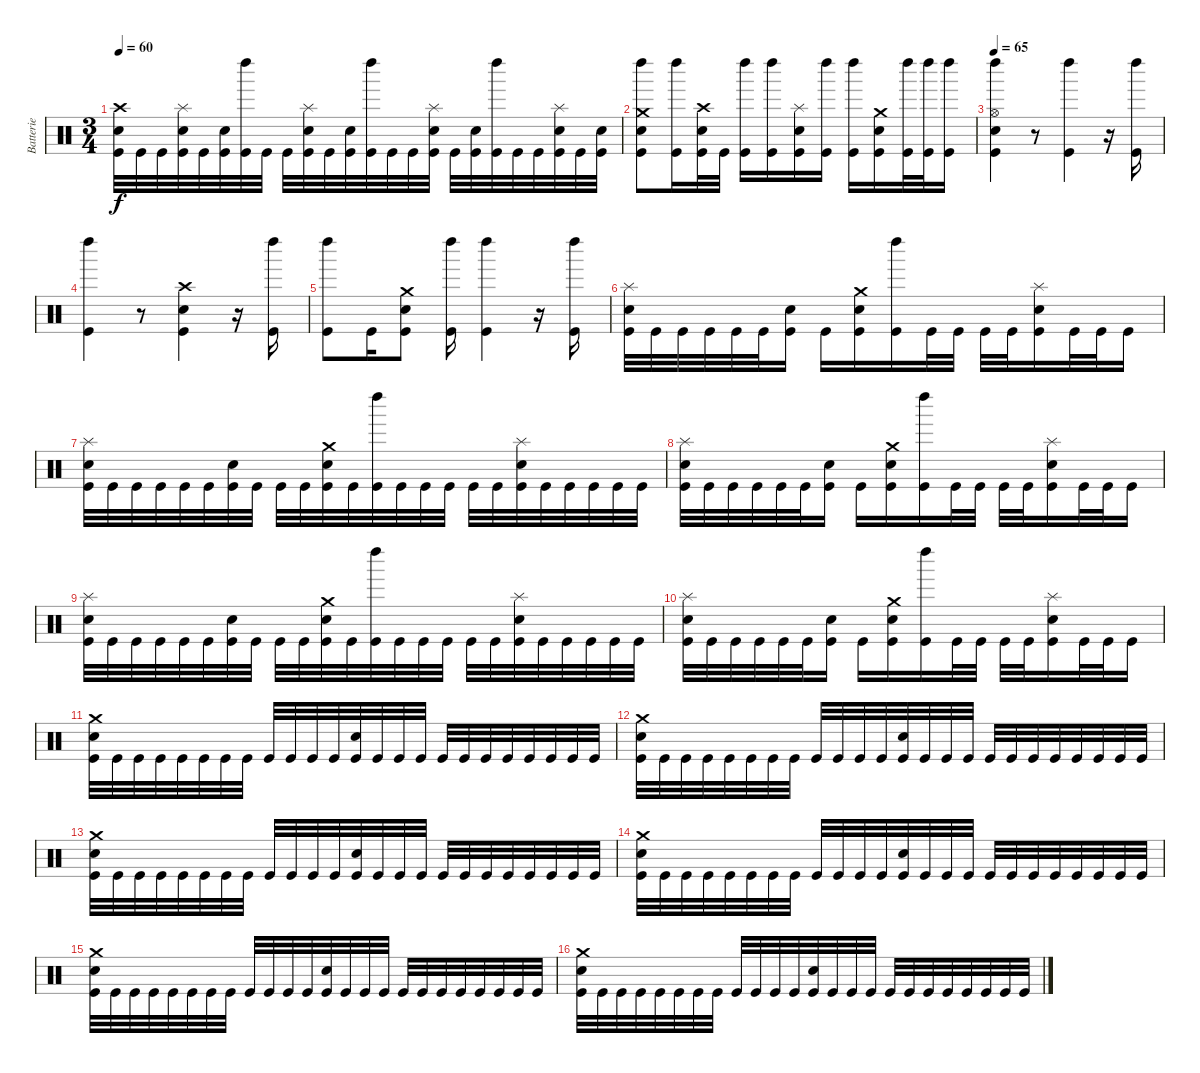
\track ("Batterie" "Batterie") {instrument percussion}
\staff {score}
\articulation defaults
\ts (3 4)
\tempo 60
\clef neutral
\ks c
("Kick (hit)" "Electric Snare (hit)" "Crash high (hit)").32{dy f} "Kick (hit)".32 "Kick (hit)".32 ("Kick (hit)" "Electric Snare (hit)" "Splash (hit)").32 "Kick (hit)".32 ("Kick (hit)" "Electric Snare (hit)").32 ("Kick (hit)" "Left Maraca (hit)").32 "Kick (hit)".32 "Kick (hit)".32 ("Kick (hit)" "Electric Snare (hit)" "Splash (hit)").32 "Kick (hit)".32 ("Kick (hit)" "Electric Snare (hit)").32 ("Kick (hit)" "Left Maraca (hit)").32 "Kick (hit)".32 "Kick (hit)".32 ("Kick (hit)" "Electric Snare (hit)" "Splash (hit)").32 "Kick (hit)".32 ("Kick (hit)" "Electric Snare (hit)").32 ("Kick (hit)" "Left Maraca (hit)").32 "Kick (hit)".32 "Kick (hit)".32 ("Kick (hit)" "Electric Snare (hit)" "Splash (hit)").32 "Kick (hit)".32 ("Kick (hit)" "Electric Snare (hit)").32 |
("Kick (hit)" "Electric Snare (hit)" "Left Maraca (hit)" "Crash medium (hit)").8 ("Kick (hit)" "Left Maraca (hit)").16 ("Kick (hit)" "Electric Snare (hit)" "Crash high (hit)").32 "Kick (hit)".32 ("Kick (hit)" "Left Maraca (hit)").16 ("Kick (hit)" "Left Maraca (hit)").16 ("Kick (hit)" "Electric Snare (hit)" "Splash (hit)").16 ("Kick (hit)" "Left Maraca (hit)").16 ("Kick (hit)" "Left Maraca (hit)").16 ("Kick (hit)" "Electric Snare (hit)" "Crash medium (hit)").16 ("Kick (hit)" "Left Maraca (hit)").32 ("Kick (hit)" "Left Maraca (hit)").32 ("Kick (hit)" "Left Maraca (hit)").16 |
\tempo 65
("Kick (hit)" "Electric Snare (hit)" "Left Maraca (hit)" "Hi-Hat (open)").4 r.8 ("Kick (hit)" "Left Maraca (hit)").4 r.16 ("Kick (hit)" "Left Maraca (hit)").16 |
("Kick (hit)" "Left Maraca (hit)").4 r.8 ("Kick (hit)" "Electric Snare (hit)" "Crash high (hit)").4 r.16 ("Kick (hit)" "Left Maraca (hit)").16 |
("Kick (hit)" "Left Maraca (hit)").8 "Kick (hit)".16 ("Kick (hit)" "Electric Snare (hit)" "Crash medium (hit)").8 ("Kick (hit)" "Left Maraca (hit)").16 ("Kick (hit)" "Left Maraca (hit)").4 r.16 ("Kick (hit)" "Left Maraca (hit)").16 |
("Kick (hit)" "Electric Snare (hit)" "Splash (hit)").32 "Kick (hit)".32 "Kick (hit)".32 "Kick (hit)".32 "Kick (hit)".32 "Kick (hit)".32 ("Kick (hit)" "Electric Snare (hit)").16 "Kick (hit)".16 ("Kick (hit)" "Electric Snare (hit)" "Crash medium (hit)").16 ("Kick (hit)" "Left Maraca (hit)").16 "Kick (hit)".32 "Kick (hit)".32 "Kick (hit)".32 "Kick (hit)".32 ("Kick (hit)" "Electric Snare (hit)" "Splash (hit)").16 "Kick (hit)".32 "Kick (hit)".32 "Kick (hit)".16 |
("Kick (hit)" "Electric Snare (hit)" "Splash (hit)").32 "Kick (hit)".32 "Kick (hit)".32 "Kick (hit)".32 "Kick (hit)".32 "Kick (hit)".32 ("Kick (hit)" "Electric Snare (hit)").32 "Kick (hit)".32 "Kick (hit)".32 "Kick (hit)".32 ("Kick (hit)" "Electric Snare (hit)" "Crash medium (hit)").32 "Kick (hit)".32 ("Kick (hit)" "Left Maraca (hit)").32 "Kick (hit)".32 "Kick (hit)".32 "Kick (hit)".32 "Kick (hit)".32 "Kick (hit)".32 ("Kick (hit)" "Electric Snare (hit)" "Splash (hit)").32 "Kick (hit)".32 "Kick (hit)".32 "Kick (hit)".32 "Kick (hit)".32 "Kick (hit)".32 |
("Kick (hit)" "Electric Snare (hit)" "Splash (hit)").32 "Kick (hit)".32 "Kick (hit)".32 "Kick (hit)".32 "Kick (hit)".32 "Kick (hit)".32 ("Kick (hit)" "Electric Snare (hit)").16 "Kick (hit)".16 ("Kick (hit)" "Electric Snare (hit)" "Crash medium (hit)").16 ("Kick (hit)" "Left Maraca (hit)").16 "Kick (hit)".32 "Kick (hit)".32 "Kick (hit)".32 "Kick (hit)".32 ("Kick (hit)" "Electric Snare (hit)" "Splash (hit)").16 "Kick (hit)".32 "Kick (hit)".32 "Kick (hit)".16 |
("Kick (hit)" "Electric Snare (hit)" "Splash (hit)").32 "Kick (hit)".32 "Kick (hit)".32 "Kick (hit)".32 "Kick (hit)".32 "Kick (hit)".32 ("Kick (hit)" "Electric Snare (hit)").32 "Kick (hit)".32 "Kick (hit)".32 "Kick (hit)".32 ("Kick (hit)" "Electric Snare (hit)" "Crash medium (hit)").32 "Kick (hit)".32 ("Kick (hit)" "Left Maraca (hit)").32 "Kick (hit)".32 "Kick (hit)".32 "Kick (hit)".32 "Kick (hit)".32 "Kick (hit)".32 ("Kick (hit)" "Electric Snare (hit)" "Splash (hit)").32 "Kick (hit)".32 "Kick (hit)".32 "Kick (hit)".32 "Kick (hit)".32 "Kick (hit)".32 |
("Kick (hit)" "Electric Snare (hit)" "Splash (hit)").32 "Kick (hit)".32 "Kick (hit)".32 "Kick (hit)".32 "Kick (hit)".32 "Kick (hit)".32 ("Kick (hit)" "Electric Snare (hit)").16 "Kick (hit)".16 ("Kick (hit)" "Electric Snare (hit)" "Crash medium (hit)").16 ("Kick (hit)" "Left Maraca (hit)").16 "Kick (hit)".32 "Kick (hit)".32 "Kick (hit)".32 "Kick (hit)".32 ("Kick (hit)" "Electric Snare (hit)" "Splash (hit)").16 "Kick (hit)".32 "Kick (hit)".32 "Kick (hit)".16 |
("Kick (hit)" "Electric Snare (hit)" "Crash medium (hit)").32 "Kick (hit)".32 "Kick (hit)".32 "Kick (hit)".32 "Kick (hit)".32 "Kick (hit)".32 "Kick (hit)".32 "Kick (hit)".32 "Kick (hit)".32 "Kick (hit)".32 "Kick (hit)".32 "Kick (hit)".32 ("Kick (hit)" "Electric Snare (hit)").32 "Kick (hit)".32 "Kick (hit)".32 "Kick (hit)".32 "Kick (hit)".32 "Kick (hit)".32 "Kick (hit)".32 "Kick (hit)".32 "Kick (hit)".32 "Kick (hit)".32 "Kick (hit)".32 "Kick (hit)".32 |
("Kick (hit)" "Electric Snare (hit)" "Crash medium (hit)").32 "Kick (hit)".32 "Kick (hit)".32 "Kick (hit)".32 "Kick (hit)".32 "Kick (hit)".32 "Kick (hit)".32 "Kick (hit)".32 "Kick (hit)".32 "Kick (hit)".32 "Kick (hit)".32 "Kick (hit)".32 ("Kick (hit)" "Electric Snare (hit)").32 "Kick (hit)".32 "Kick (hit)".32 "Kick (hit)".32 "Kick (hit)".32 "Kick (hit)".32 "Kick (hit)".32 "Kick (hit)".32 "Kick (hit)".32 "Kick (hit)".32 "Kick (hit)".32 "Kick (hit)".32 |
("Kick (hit)" "Electric Snare (hit)" "Crash medium (hit)").32 "Kick (hit)".32 "Kick (hit)".32 "Kick (hit)".32 "Kick (hit)".32 "Kick (hit)".32 "Kick (hit)".32 "Kick (hit)".32 "Kick (hit)".32 "Kick (hit)".32 "Kick (hit)".32 "Kick (hit)".32 ("Kick (hit)" "Electric Snare (hit)").32 "Kick (hit)".32 "Kick (hit)".32 "Kick (hit)".32 "Kick (hit)".32 "Kick (hit)".32 "Kick (hit)".32 "Kick (hit)".32 "Kick (hit)".32 "Kick (hit)".32 "Kick (hit)".32 "Kick (hit)".32 |
("Kick (hit)" "Electric Snare (hit)" "Crash medium (hit)").32 "Kick (hit)".32 "Kick (hit)".32 "Kick (hit)".32 "Kick (hit)".32 "Kick (hit)".32 "Kick (hit)".32 "Kick (hit)".32 "Kick (hit)".32 "Kick (hit)".32 "Kick (hit)".32 "Kick (hit)".32 ("Kick (hit)" "Electric Snare (hit)").32 "Kick (hit)".32 "Kick (hit)".32 "Kick (hit)".32 "Kick (hit)".32 "Kick (hit)".32 "Kick (hit)".32 "Kick (hit)".32 "Kick (hit)".32 "Kick (hit)".32 "Kick (hit)".32 "Kick (hit)".32 |
("Kick (hit)" "Electric Snare (hit)" "Crash medium (hit)").32 "Kick (hit)".32 "Kick (hit)".32 "Kick (hit)".32 "Kick (hit)".32 "Kick (hit)".32 "Kick (hit)".32 "Kick (hit)".32 "Kick (hit)".32 "Kick (hit)".32 "Kick (hit)".32 "Kick (hit)".32 ("Kick (hit)" "Electric Snare (hit)").32 "Kick (hit)".32 "Kick (hit)".32 "Kick (hit)".32 "Kick (hit)".32 "Kick (hit)".32 "Kick (hit)".32 "Kick (hit)".32 "Kick (hit)".32 "Kick (hit)".32 "Kick (hit)".32 "Kick (hit)".32 |
("Kick (hit)" "Electric Snare (hit)" "Crash medium (hit)").32 "Kick (hit)".32 "Kick (hit)".32 "Kick (hit)".32 "Kick (hit)".32 "Kick (hit)".32 "Kick (hit)".32 "Kick (hit)".32 "Kick (hit)".32 "Kick (hit)".32 "Kick (hit)".32 "Kick (hit)".32 ("Kick (hit)" "Electric Snare (hit)").32 "Kick (hit)".32 "Kick (hit)".32 "Kick (hit)".32 "Kick (hit)".32 "Kick (hit)".32 "Kick (hit)".32 "Kick (hit)".32 "Kick (hit)".32 "Kick (hit)".32 "Kick (hit)".32 "Kick (hit)".32
